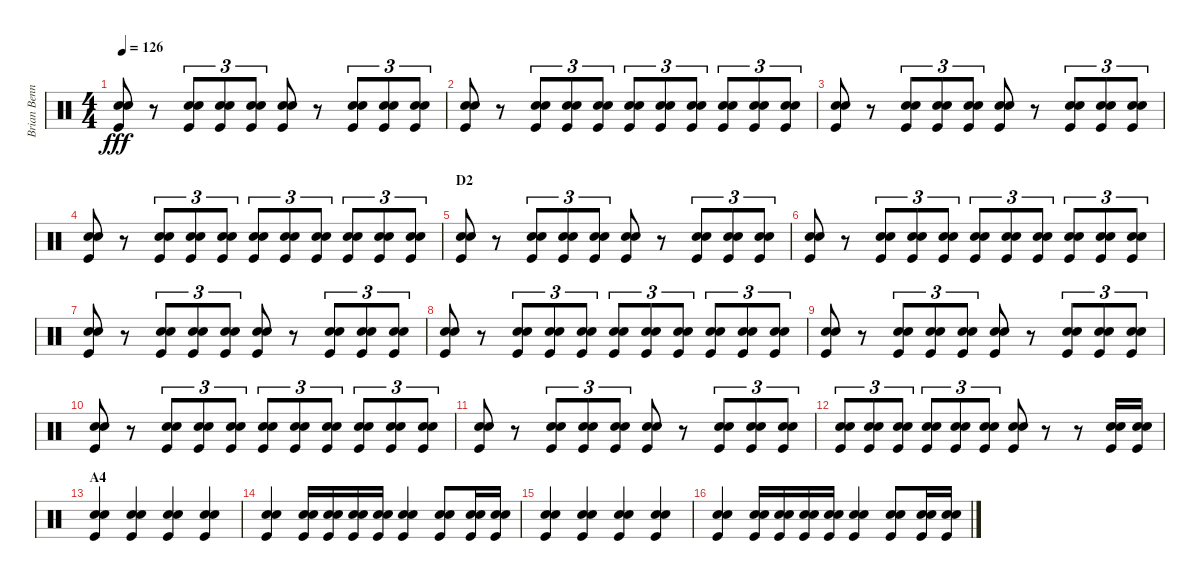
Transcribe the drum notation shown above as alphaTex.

\track ("Brian Bennett" "Brian Benn") {instrument percussion}
\staff {score}
\articulation defaults
\ts (4 4)
\tempo 126
\clef neutral
\ks c
("Electric Snare (hit)" "Snare (hit) 2" "Kick (hit)").8{dy fff} r.8 ("Electric Snare (hit)" "Snare (hit) 2" "Kick (hit)").8{tu (3 2)} ("Electric Snare (hit)" "Snare (hit) 2" "Kick (hit)").8{tu (3 2)} ("Electric Snare (hit)" "Snare (hit) 2" "Kick (hit)").8{tu (3 2)} ("Electric Snare (hit)" "Snare (hit) 2" "Kick (hit)").8 r.8 ("Electric Snare (hit)" "Snare (hit) 2" "Kick (hit)").8{tu (3 2)} ("Electric Snare (hit)" "Snare (hit) 2" "Kick (hit)").8{tu (3 2)} ("Electric Snare (hit)" "Snare (hit) 2" "Kick (hit)").8{tu (3 2)} |
("Electric Snare (hit)" "Snare (hit) 2" "Kick (hit)").8 r.8 ("Electric Snare (hit)" "Snare (hit) 2" "Kick (hit)").8{tu (3 2)} ("Electric Snare (hit)" "Snare (hit) 2" "Kick (hit)").8{tu (3 2)} ("Electric Snare (hit)" "Snare (hit) 2" "Kick (hit)").8{tu (3 2)} ("Electric Snare (hit)" "Snare (hit) 2" "Kick (hit)").8{tu (3 2)} ("Electric Snare (hit)" "Snare (hit) 2" "Kick (hit)").8{tu (3 2)} ("Electric Snare (hit)" "Snare (hit) 2" "Kick (hit)").8{tu (3 2)} ("Electric Snare (hit)" "Snare (hit) 2" "Kick (hit)").8{tu (3 2)} ("Electric Snare (hit)" "Snare (hit) 2" "Kick (hit)").8{tu (3 2)} ("Electric Snare (hit)" "Snare (hit) 2" "Kick (hit)").8{tu (3 2)} |
("Electric Snare (hit)" "Snare (hit) 2" "Kick (hit)").8 r.8 ("Electric Snare (hit)" "Snare (hit) 2" "Kick (hit)").8{tu (3 2)} ("Electric Snare (hit)" "Snare (hit) 2" "Kick (hit)").8{tu (3 2)} ("Electric Snare (hit)" "Snare (hit) 2" "Kick (hit)").8{tu (3 2)} ("Electric Snare (hit)" "Snare (hit) 2" "Kick (hit)").8 r.8 ("Electric Snare (hit)" "Snare (hit) 2" "Kick (hit)").8{tu (3 2)} ("Electric Snare (hit)" "Snare (hit) 2" "Kick (hit)").8{tu (3 2)} ("Electric Snare (hit)" "Snare (hit) 2" "Kick (hit)").8{tu (3 2)} |
("Electric Snare (hit)" "Snare (hit) 2" "Kick (hit)").8 r.8 ("Electric Snare (hit)" "Snare (hit) 2" "Kick (hit)").8{tu (3 2)} ("Electric Snare (hit)" "Snare (hit) 2" "Kick (hit)").8{tu (3 2)} ("Electric Snare (hit)" "Snare (hit) 2" "Kick (hit)").8{tu (3 2)} ("Electric Snare (hit)" "Snare (hit) 2" "Kick (hit)").8{tu (3 2)} ("Electric Snare (hit)" "Snare (hit) 2" "Kick (hit)").8{tu (3 2)} ("Electric Snare (hit)" "Snare (hit) 2" "Kick (hit)").8{tu (3 2)} ("Electric Snare (hit)" "Snare (hit) 2" "Kick (hit)").8{tu (3 2)} ("Electric Snare (hit)" "Snare (hit) 2" "Kick (hit)").8{tu (3 2)} ("Electric Snare (hit)" "Snare (hit) 2" "Kick (hit)").8{tu (3 2)} |
\section ("" "D2")
("Electric Snare (hit)" "Snare (hit) 2" "Kick (hit)").8 r.8 ("Electric Snare (hit)" "Snare (hit) 2" "Kick (hit)").8{tu (3 2)} ("Electric Snare (hit)" "Snare (hit) 2" "Kick (hit)").8{tu (3 2)} ("Electric Snare (hit)" "Snare (hit) 2" "Kick (hit)").8{tu (3 2)} ("Electric Snare (hit)" "Snare (hit) 2" "Kick (hit)").8 r.8 ("Electric Snare (hit)" "Snare (hit) 2" "Kick (hit)").8{tu (3 2)} ("Electric Snare (hit)" "Snare (hit) 2" "Kick (hit)").8{tu (3 2)} ("Electric Snare (hit)" "Snare (hit) 2" "Kick (hit)").8{tu (3 2)} |
("Electric Snare (hit)" "Snare (hit) 2" "Kick (hit)").8 r.8 ("Electric Snare (hit)" "Snare (hit) 2" "Kick (hit)").8{tu (3 2)} ("Electric Snare (hit)" "Snare (hit) 2" "Kick (hit)").8{tu (3 2)} ("Electric Snare (hit)" "Snare (hit) 2" "Kick (hit)").8{tu (3 2)} ("Electric Snare (hit)" "Snare (hit) 2" "Kick (hit)").8{tu (3 2)} ("Electric Snare (hit)" "Snare (hit) 2" "Kick (hit)").8{tu (3 2)} ("Electric Snare (hit)" "Snare (hit) 2" "Kick (hit)").8{tu (3 2)} ("Electric Snare (hit)" "Snare (hit) 2" "Kick (hit)").8{tu (3 2)} ("Electric Snare (hit)" "Snare (hit) 2" "Kick (hit)").8{tu (3 2)} ("Electric Snare (hit)" "Snare (hit) 2" "Kick (hit)").8{tu (3 2)} |
("Electric Snare (hit)" "Snare (hit) 2" "Kick (hit)").8 r.8 ("Electric Snare (hit)" "Snare (hit) 2" "Kick (hit)").8{tu (3 2)} ("Electric Snare (hit)" "Snare (hit) 2" "Kick (hit)").8{tu (3 2)} ("Electric Snare (hit)" "Snare (hit) 2" "Kick (hit)").8{tu (3 2)} ("Electric Snare (hit)" "Snare (hit) 2" "Kick (hit)").8 r.8 ("Electric Snare (hit)" "Snare (hit) 2" "Kick (hit)").8{tu (3 2)} ("Electric Snare (hit)" "Snare (hit) 2" "Kick (hit)").8{tu (3 2)} ("Electric Snare (hit)" "Snare (hit) 2" "Kick (hit)").8{tu (3 2)} |
("Electric Snare (hit)" "Snare (hit) 2" "Kick (hit)").8 r.8 ("Electric Snare (hit)" "Snare (hit) 2" "Kick (hit)").8{tu (3 2)} ("Electric Snare (hit)" "Snare (hit) 2" "Kick (hit)").8{tu (3 2)} ("Electric Snare (hit)" "Snare (hit) 2" "Kick (hit)").8{tu (3 2)} ("Electric Snare (hit)" "Snare (hit) 2" "Kick (hit)").8{tu (3 2)} ("Electric Snare (hit)" "Snare (hit) 2" "Kick (hit)").8{tu (3 2)} ("Electric Snare (hit)" "Snare (hit) 2" "Kick (hit)").8{tu (3 2)} ("Electric Snare (hit)" "Snare (hit) 2" "Kick (hit)").8{tu (3 2)} ("Electric Snare (hit)" "Snare (hit) 2" "Kick (hit)").8{tu (3 2)} ("Electric Snare (hit)" "Snare (hit) 2" "Kick (hit)").8{tu (3 2)} |
("Electric Snare (hit)" "Snare (hit) 2" "Kick (hit)").8 r.8 ("Electric Snare (hit)" "Snare (hit) 2" "Kick (hit)").8{tu (3 2)} ("Electric Snare (hit)" "Snare (hit) 2" "Kick (hit)").8{tu (3 2)} ("Electric Snare (hit)" "Snare (hit) 2" "Kick (hit)").8{tu (3 2)} ("Electric Snare (hit)" "Snare (hit) 2" "Kick (hit)").8 r.8 ("Electric Snare (hit)" "Snare (hit) 2" "Kick (hit)").8{tu (3 2)} ("Electric Snare (hit)" "Snare (hit) 2" "Kick (hit)").8{tu (3 2)} ("Electric Snare (hit)" "Snare (hit) 2" "Kick (hit)").8{tu (3 2)} |
("Electric Snare (hit)" "Snare (hit) 2" "Kick (hit)").8 r.8 ("Electric Snare (hit)" "Snare (hit) 2" "Kick (hit)").8{tu (3 2)} ("Electric Snare (hit)" "Snare (hit) 2" "Kick (hit)").8{tu (3 2)} ("Electric Snare (hit)" "Snare (hit) 2" "Kick (hit)").8{tu (3 2)} ("Electric Snare (hit)" "Snare (hit) 2" "Kick (hit)").8{tu (3 2)} ("Electric Snare (hit)" "Snare (hit) 2" "Kick (hit)").8{tu (3 2)} ("Electric Snare (hit)" "Snare (hit) 2" "Kick (hit)").8{tu (3 2)} ("Electric Snare (hit)" "Snare (hit) 2" "Kick (hit)").8{tu (3 2)} ("Electric Snare (hit)" "Snare (hit) 2" "Kick (hit)").8{tu (3 2)} ("Electric Snare (hit)" "Snare (hit) 2" "Kick (hit)").8{tu (3 2)} |
("Electric Snare (hit)" "Snare (hit) 2" "Kick (hit)").8 r.8 ("Electric Snare (hit)" "Snare (hit) 2" "Kick (hit)").8{tu (3 2)} ("Electric Snare (hit)" "Snare (hit) 2" "Kick (hit)").8{tu (3 2)} ("Electric Snare (hit)" "Snare (hit) 2" "Kick (hit)").8{tu (3 2)} ("Electric Snare (hit)" "Snare (hit) 2" "Kick (hit)").8 r.8 ("Electric Snare (hit)" "Snare (hit) 2" "Kick (hit)").8{tu (3 2)} ("Electric Snare (hit)" "Snare (hit) 2" "Kick (hit)").8{tu (3 2)} ("Electric Snare (hit)" "Snare (hit) 2" "Kick (hit)").8{tu (3 2)} |
("Electric Snare (hit)" "Snare (hit) 2" "Kick (hit)").8{tu (3 2)} ("Electric Snare (hit)" "Snare (hit) 2" "Kick (hit)").8{tu (3 2)} ("Electric Snare (hit)" "Snare (hit) 2" "Kick (hit)").8{tu (3 2)} ("Electric Snare (hit)" "Snare (hit) 2" "Kick (hit)").8{tu (3 2)} ("Electric Snare (hit)" "Snare (hit) 2" "Kick (hit)").8{tu (3 2)} ("Electric Snare (hit)" "Snare (hit) 2" "Kick (hit)").8{tu (3 2)} ("Electric Snare (hit)" "Snare (hit) 2" "Kick (hit)").8 r.8 r.8 ("Electric Snare (hit)" "Snare (hit) 2" "Kick (hit)").16 ("Electric Snare (hit)" "Snare (hit) 2" "Kick (hit)").16 |
\section ("" "A4")
("Electric Snare (hit)" "Snare (hit) 2" "Kick (hit)").4 ("Electric Snare (hit)" "Snare (hit) 2" "Kick (hit)").4 ("Electric Snare (hit)" "Snare (hit) 2" "Kick (hit)").4 ("Electric Snare (hit)" "Snare (hit) 2" "Kick (hit)").4 |
("Electric Snare (hit)" "Snare (hit) 2" "Kick (hit)").4 ("Electric Snare (hit)" "Snare (hit) 2" "Kick (hit)").16 ("Electric Snare (hit)" "Snare (hit) 2" "Kick (hit)").16 ("Electric Snare (hit)" "Snare (hit) 2" "Kick (hit)").16 ("Electric Snare (hit)" "Snare (hit) 2" "Kick (hit)").16 ("Electric Snare (hit)" "Snare (hit) 2" "Kick (hit)").4 ("Electric Snare (hit)" "Snare (hit) 2" "Kick (hit)").8 ("Electric Snare (hit)" "Snare (hit) 2" "Kick (hit)").16 ("Electric Snare (hit)" "Snare (hit) 2" "Kick (hit)").16 |
("Electric Snare (hit)" "Snare (hit) 2" "Kick (hit)").4 ("Electric Snare (hit)" "Snare (hit) 2" "Kick (hit)").4 ("Electric Snare (hit)" "Snare (hit) 2" "Kick (hit)").4 ("Electric Snare (hit)" "Snare (hit) 2" "Kick (hit)").4 |
("Electric Snare (hit)" "Snare (hit) 2" "Kick (hit)").4 ("Electric Snare (hit)" "Snare (hit) 2" "Kick (hit)").16 ("Electric Snare (hit)" "Snare (hit) 2" "Kick (hit)").16 ("Electric Snare (hit)" "Snare (hit) 2" "Kick (hit)").16 ("Electric Snare (hit)" "Snare (hit) 2" "Kick (hit)").16 ("Electric Snare (hit)" "Snare (hit) 2" "Kick (hit)").4 ("Electric Snare (hit)" "Snare (hit) 2" "Kick (hit)").8 ("Electric Snare (hit)" "Snare (hit) 2" "Kick (hit)").16 ("Electric Snare (hit)" "Snare (hit) 2" "Kick (hit)").16
